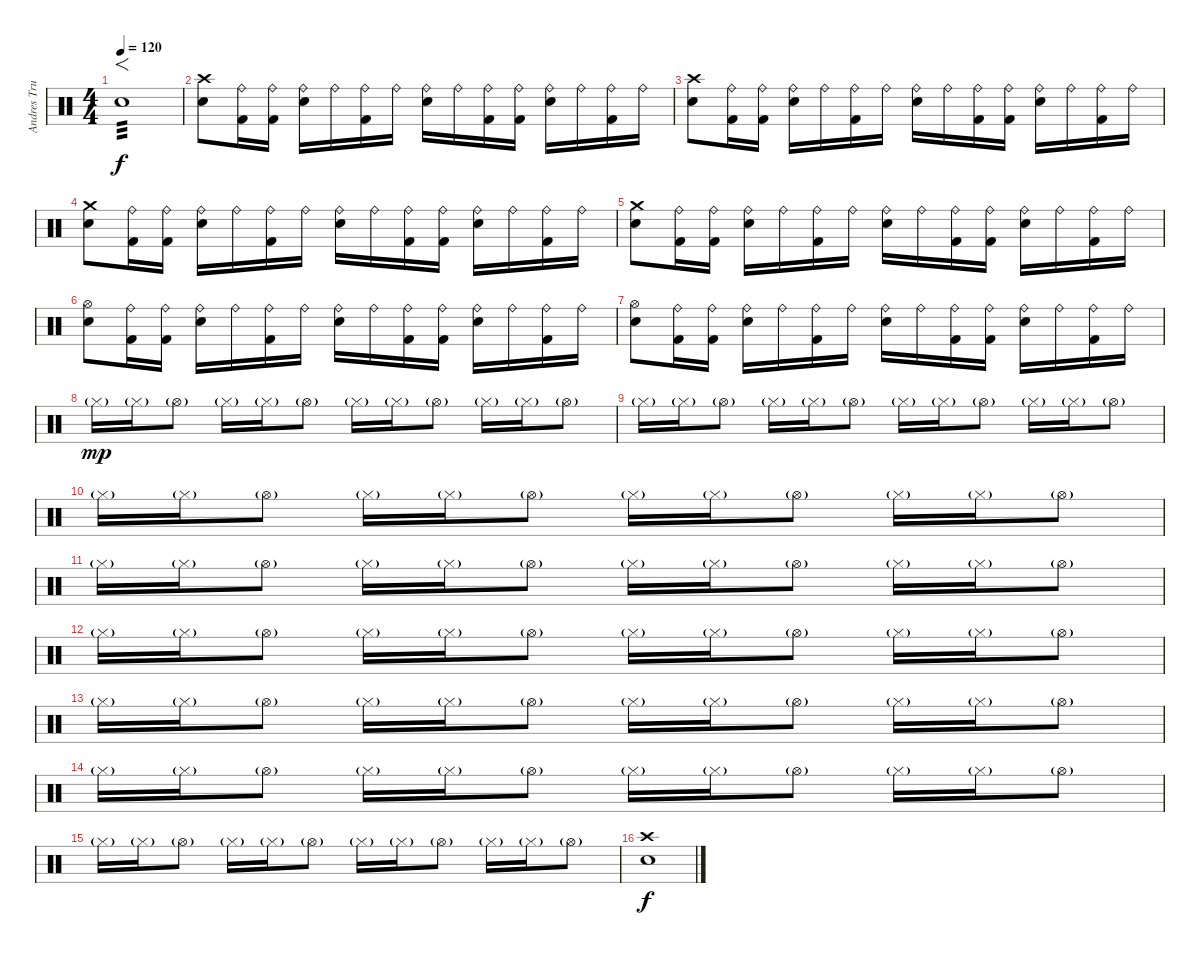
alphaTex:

\track ("Andres Trujillo" "Andres Tru") {instrument percussion}
\staff {score}
\articulation defaults
\ts (4 4)
\tempo 120
\clef neutral
\ks c "Electric Snare (hit)".1{f tp 3 dy f}
|
("Crash high (hit)" "Electric Snare (hit)").8 ("Ride (bell)" "Kick (hit) 2").16 ("Ride (bell)" "Kick (hit) 2").16 ("Ride (bell)" "Electric Snare (hit)").16 "Ride (bell)".16 ("Ride (bell)" "Kick (hit) 2").16 "Ride (bell)".16 ("Ride (bell)" "Electric Snare (hit)").16 "Ride (bell)".16 ("Ride (bell)" "Kick (hit) 2").16 ("Ride (bell)" "Kick (hit) 2").16 ("Ride (bell)" "Electric Snare (hit)").16 "Ride (bell)".16 ("Ride (bell)" "Kick (hit) 2").16 "Ride (bell)".16 |
("Crash high (hit)" "Electric Snare (hit)").8 ("Ride (bell)" "Kick (hit) 2").16 ("Ride (bell)" "Kick (hit) 2").16 ("Ride (bell)" "Electric Snare (hit)").16 "Ride (bell)".16 ("Ride (bell)" "Kick (hit) 2").16 "Ride (bell)".16 ("Ride (bell)" "Electric Snare (hit)").16 "Ride (bell)".16 ("Ride (bell)" "Kick (hit) 2").16 ("Ride (bell)" "Kick (hit) 2").16 ("Ride (bell)" "Electric Snare (hit)").16 "Ride (bell)".16 ("Ride (bell)" "Kick (hit) 2").16 "Ride (bell)".16 |
("Crash medium (hit)" "Electric Snare (hit)").8 ("Ride (bell)" "Kick (hit) 2").16 ("Ride (bell)" "Kick (hit) 2").16 ("Ride (bell)" "Electric Snare (hit)").16 "Ride (bell)".16 ("Ride (bell)" "Kick (hit) 2").16 "Ride (bell)".16 ("Ride (bell)" "Electric Snare (hit)").16 "Ride (bell)".16 ("Ride (bell)" "Kick (hit) 2").16 ("Ride (bell)" "Kick (hit) 2").16 ("Ride (bell)" "Electric Snare (hit)").16 "Ride (bell)".16 ("Ride (bell)" "Kick (hit) 2").16 "Ride (bell)".16 |
("Crash medium (hit)" "Electric Snare (hit)").8 ("Ride (bell)" "Kick (hit) 2").16 ("Ride (bell)" "Kick (hit) 2").16 ("Ride (bell)" "Electric Snare (hit)").16 "Ride (bell)".16 ("Ride (bell)" "Kick (hit) 2").16 "Ride (bell)".16 ("Ride (bell)" "Electric Snare (hit)").16 "Ride (bell)".16 ("Ride (bell)" "Kick (hit) 2").16 ("Ride (bell)" "Kick (hit) 2").16 ("Ride (bell)" "Electric Snare (hit)").16 "Ride (bell)".16 ("Ride (bell)" "Kick (hit) 2").16 "Ride (bell)".16 |
("Hi-Hat (open)" "Electric Snare (hit)").8 ("Ride (bell)" "Kick (hit) 2").16 ("Ride (bell)" "Kick (hit) 2").16 ("Ride (bell)" "Electric Snare (hit)").16 "Ride (bell)".16 ("Ride (bell)" "Kick (hit) 2").16 "Ride (bell)".16 ("Ride (bell)" "Electric Snare (hit)").16 "Ride (bell)".16 ("Ride (bell)" "Kick (hit) 2").16 ("Ride (bell)" "Kick (hit) 2").16 ("Ride (bell)" "Electric Snare (hit)").16 "Ride (bell)".16 ("Ride (bell)" "Kick (hit) 2").16 "Ride (bell)".16 |
("Hi-Hat (open)" "Electric Snare (hit)").8 ("Ride (bell)" "Kick (hit) 2").16 ("Ride (bell)" "Kick (hit) 2").16 ("Ride (bell)" "Electric Snare (hit)").16 "Ride (bell)".16 ("Ride (bell)" "Kick (hit) 2").16 "Ride (bell)".16 ("Ride (bell)" "Electric Snare (hit)").16 "Ride (bell)".16 ("Ride (bell)" "Kick (hit) 2").16 ("Ride (bell)" "Kick (hit) 2").16 ("Ride (bell)" "Electric Snare (hit)").16 "Ride (bell)".16 ("Ride (bell)" "Kick (hit) 2").16 "Ride (bell)".16 |
"Hi-Hat (closed)"{g}.16{dy mp} "Hi-Hat (closed)"{g}.16 "Hi-Hat (open)"{g}.8 "Hi-Hat (closed)"{g}.16 "Hi-Hat (closed)"{g}.16 "Hi-Hat (open)"{g}.8 "Hi-Hat (closed)"{g}.16 "Hi-Hat (closed)"{g}.16 "Hi-Hat (open)"{g}.8 "Hi-Hat (closed)"{g}.16 "Hi-Hat (closed)"{g}.16 "Hi-Hat (open)"{g}.8 |
"Hi-Hat (closed)"{g}.16 "Hi-Hat (closed)"{g}.16 "Hi-Hat (open)"{g}.8 "Hi-Hat (closed)"{g}.16 "Hi-Hat (closed)"{g}.16 "Hi-Hat (open)"{g}.8 "Hi-Hat (closed)"{g}.16 "Hi-Hat (closed)"{g}.16 "Hi-Hat (open)"{g}.8 "Hi-Hat (closed)"{g}.16 "Hi-Hat (closed)"{g}.16 "Hi-Hat (open)"{g}.8 |
"Hi-Hat (closed)"{g}.16 "Hi-Hat (closed)"{g}.16 "Hi-Hat (open)"{g}.8 "Hi-Hat (closed)"{g}.16 "Hi-Hat (closed)"{g}.16 "Hi-Hat (open)"{g}.8 "Hi-Hat (closed)"{g}.16 "Hi-Hat (closed)"{g}.16 "Hi-Hat (open)"{g}.8 "Hi-Hat (closed)"{g}.16 "Hi-Hat (closed)"{g}.16 "Hi-Hat (open)"{g}.8 |
"Hi-Hat (closed)"{g}.16 "Hi-Hat (closed)"{g}.16 "Hi-Hat (open)"{g}.8 "Hi-Hat (closed)"{g}.16 "Hi-Hat (closed)"{g}.16 "Hi-Hat (open)"{g}.8 "Hi-Hat (closed)"{g}.16 "Hi-Hat (closed)"{g}.16 "Hi-Hat (open)"{g}.8 "Hi-Hat (closed)"{g}.16 "Hi-Hat (closed)"{g}.16 "Hi-Hat (open)"{g}.8 |
"Hi-Hat (closed)"{g}.16 "Hi-Hat (closed)"{g}.16 "Hi-Hat (open)"{g}.8 "Hi-Hat (closed)"{g}.16 "Hi-Hat (closed)"{g}.16 "Hi-Hat (open)"{g}.8 "Hi-Hat (closed)"{g}.16 "Hi-Hat (closed)"{g}.16 "Hi-Hat (open)"{g}.8 "Hi-Hat (closed)"{g}.16 "Hi-Hat (closed)"{g}.16 "Hi-Hat (open)"{g}.8 |
"Hi-Hat (closed)"{g}.16 "Hi-Hat (closed)"{g}.16 "Hi-Hat (open)"{g}.8 "Hi-Hat (closed)"{g}.16 "Hi-Hat (closed)"{g}.16 "Hi-Hat (open)"{g}.8 "Hi-Hat (closed)"{g}.16 "Hi-Hat (closed)"{g}.16 "Hi-Hat (open)"{g}.8 "Hi-Hat (closed)"{g}.16 "Hi-Hat (closed)"{g}.16 "Hi-Hat (open)"{g}.8 |
"Hi-Hat (closed)"{g}.16 "Hi-Hat (closed)"{g}.16 "Hi-Hat (open)"{g}.8 "Hi-Hat (closed)"{g}.16 "Hi-Hat (closed)"{g}.16 "Hi-Hat (open)"{g}.8 "Hi-Hat (closed)"{g}.16 "Hi-Hat (closed)"{g}.16 "Hi-Hat (open)"{g}.8 "Hi-Hat (closed)"{g}.16 "Hi-Hat (closed)"{g}.16 "Hi-Hat (open)"{g}.8 |
"Hi-Hat (closed)"{g}.16 "Hi-Hat (closed)"{g}.16 "Hi-Hat (open)"{g}.8 "Hi-Hat (closed)"{g}.16 "Hi-Hat (closed)"{g}.16 "Hi-Hat (open)"{g}.8 "Hi-Hat (closed)"{g}.16 "Hi-Hat (closed)"{g}.16 "Hi-Hat (open)"{g}.8 "Hi-Hat (closed)"{g}.16 "Hi-Hat (closed)"{g}.16 "Hi-Hat (open)"{g}.8 |
("Crash high (hit)" "Electric Snare (hit)").1{dy f volume 16}
